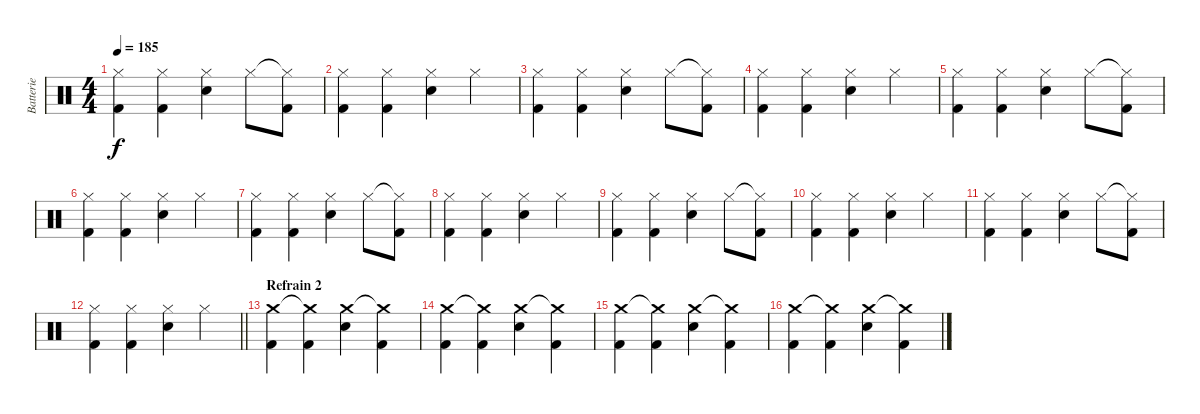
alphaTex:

\track ("Batterie" "Batterie") {instrument percussion}
\staff {score}
\articulation defaults
\ts (4 4)
\tempo 185
\clef neutral
\ks c
("Hi-Hat (closed)" "Kick (hit) 2").4{dy f} ("Hi-Hat (closed)" "Kick (hit) 2").4 ("Hi-Hat (closed)" "Electric Snare (hit)").4 "Hi-Hat (closed)".8 ("Hi-Hat (closed)"{t} "Kick (hit) 2").8 |
("Hi-Hat (closed)" "Kick (hit) 2").4 ("Hi-Hat (closed)" "Kick (hit) 2").4 ("Hi-Hat (closed)" "Electric Snare (hit)").4 "Hi-Hat (closed)".4 |
("Hi-Hat (closed)" "Kick (hit) 2").4 ("Hi-Hat (closed)" "Kick (hit) 2").4 ("Hi-Hat (closed)" "Electric Snare (hit)").4 "Hi-Hat (closed)".8 ("Hi-Hat (closed)"{t} "Kick (hit) 2").8 |
("Hi-Hat (closed)" "Kick (hit) 2").4 ("Hi-Hat (closed)" "Kick (hit) 2").4 ("Hi-Hat (closed)" "Electric Snare (hit)").4 "Hi-Hat (closed)".4 |
("Hi-Hat (closed)" "Kick (hit) 2").4 ("Hi-Hat (closed)" "Kick (hit) 2").4 ("Hi-Hat (closed)" "Electric Snare (hit)").4 "Hi-Hat (closed)".8 ("Hi-Hat (closed)"{t} "Kick (hit) 2").8 |
("Hi-Hat (closed)" "Kick (hit) 2").4 ("Hi-Hat (closed)" "Kick (hit) 2").4 ("Hi-Hat (closed)" "Electric Snare (hit)").4 "Hi-Hat (closed)".4 |
("Hi-Hat (closed)" "Kick (hit) 2").4 ("Hi-Hat (closed)" "Kick (hit) 2").4 ("Hi-Hat (closed)" "Electric Snare (hit)").4 "Hi-Hat (closed)".8 ("Hi-Hat (closed)"{t} "Kick (hit) 2").8 |
("Hi-Hat (closed)" "Kick (hit) 2").4 ("Hi-Hat (closed)" "Kick (hit) 2").4 ("Hi-Hat (closed)" "Electric Snare (hit)").4 "Hi-Hat (closed)".4 |
("Hi-Hat (closed)" "Kick (hit) 2").4 ("Hi-Hat (closed)" "Kick (hit) 2").4 ("Hi-Hat (closed)" "Electric Snare (hit)").4 "Hi-Hat (closed)".8 ("Hi-Hat (closed)"{t} "Kick (hit) 2").8 |
("Hi-Hat (closed)" "Kick (hit) 2").4 ("Hi-Hat (closed)" "Kick (hit) 2").4 ("Hi-Hat (closed)" "Electric Snare (hit)").4 "Hi-Hat (closed)".4 |
("Hi-Hat (closed)" "Kick (hit) 2").4 ("Hi-Hat (closed)" "Kick (hit) 2").4 ("Hi-Hat (closed)" "Electric Snare (hit)").4 "Hi-Hat (closed)".8 ("Hi-Hat (closed)"{t} "Kick (hit) 2").8 |
\barLineRight lightlight
("Hi-Hat (closed)" "Kick (hit) 2").4 ("Hi-Hat (closed)" "Kick (hit) 2").4 ("Hi-Hat (closed)" "Electric Snare (hit)").4 "Hi-Hat (closed)".4 |
\section ("" "Refrain 2")
("Crash medium (hit)" "Kick (hit) 2").4 ("Crash medium (hit)"{t} "Kick (hit) 2").4 ("Crash medium (hit)" "Electric Snare (hit)").4 ("Crash medium (hit)"{t} "Kick (hit) 2").4 |
("Crash medium (hit)" "Kick (hit) 2").4 ("Crash medium (hit)"{t} "Kick (hit) 2").4 ("Crash medium (hit)" "Electric Snare (hit)").4 ("Crash medium (hit)"{t} "Kick (hit) 2").4 |
("Crash medium (hit)" "Kick (hit) 2").4 ("Crash medium (hit)"{t} "Kick (hit) 2").4 ("Crash medium (hit)" "Electric Snare (hit)").4 ("Crash medium (hit)"{t} "Kick (hit) 2").4 |
("Crash medium (hit)" "Kick (hit) 2").4 ("Crash medium (hit)"{t} "Kick (hit) 2").4 ("Crash medium (hit)" "Electric Snare (hit)").4 ("Crash medium (hit)"{t} "Kick (hit) 2").4
